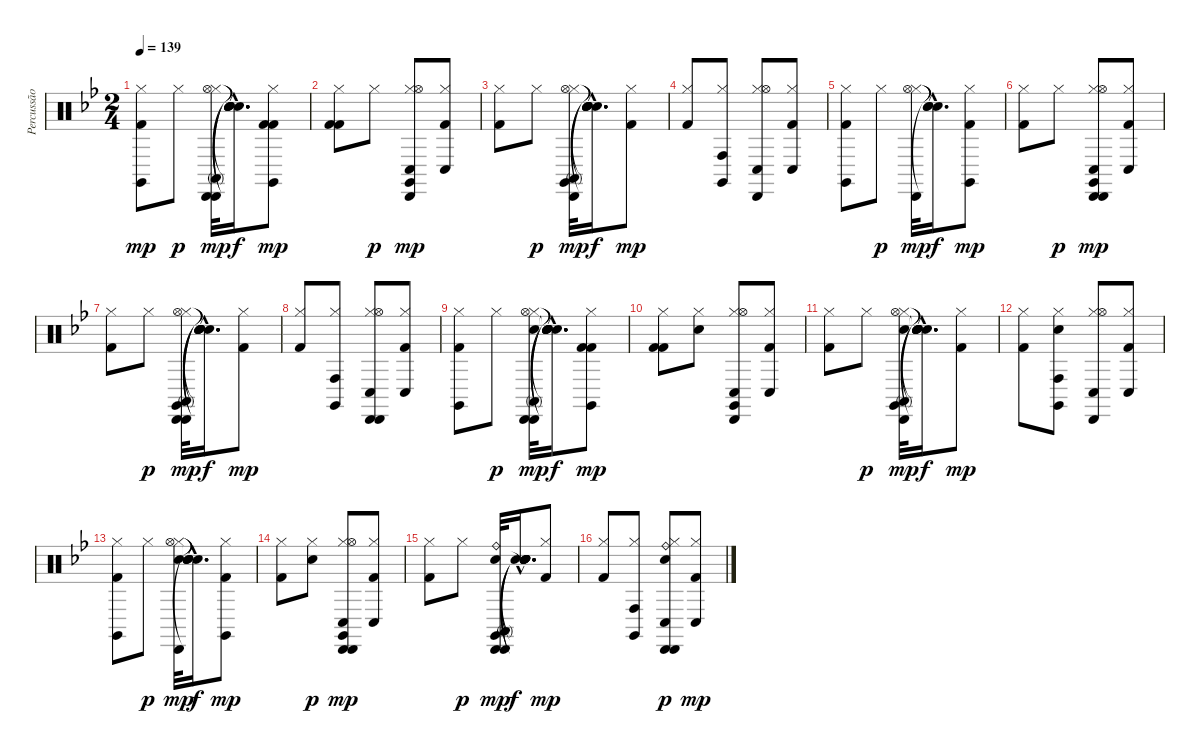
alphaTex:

\track ("Percussão" "Percussão") {instrument percussion}
\staff {score}
\articulation defaults
\ts (2 4)
\tempo 139
\clef neutral
\ks bb
("Hi-Hat (closed)" "Claves (hit)" "Kick (hit) 2").8{dy mp} "Hi-Hat (closed)".8{dy p} ("Conga high (mute)" "Cabasa (hit)" "Cabasa (hit)" "Hi-Hat (closed)" "Hi-Hat (open)").32{dy mp} ("Snare (hit)"{hac t} "Snare (hit)"{hac t} "Snare (hit)"{hac t} "Snare (hit)"{hac t} "Snare (hit)"{hac t}).16{d dy f} ("Hi-Hat (closed)" "Claves (hit)" "Kick (hit) 2" "Kick (hit) 2").8{dy mp} |
("Hi-Hat (closed)" "Kick (hit) 2" "Kick (hit) 2").8 "Hi-Hat (closed)".8{dy p} ("Cabasa (hit)" "Conga low (hit)" "Claves (hit)" "Hi-Hat (closed)" "Hi-Hat (open)").8{dy mp} ("Hi-Hat (closed)" "Conga low (hit)" "Kick (hit) 2").8 |
("Hi-Hat (closed)" "Kick (hit) 2").8 "Hi-Hat (closed)".8{dy p} ("Conga high (mute)" "Cabasa (hit)" "Claves (hit)" "Hi-Hat (closed)" "Hi-Hat (open)").32{dy mp} ("Snare (hit)"{hac t} "Snare (hit)"{hac t} "Snare (hit)"{hac t} "Snare (hit)"{hac t} "Snare (hit)"{hac t}).16{d dy f} ("Hi-Hat (closed)" "Kick (hit) 2").8{dy mp} |
("Hi-Hat (closed)" "Kick (hit) 2").8 ("Hi-Hat (closed)" "Claves (hit)" "Conga high (hit)").8 ("Cabasa (hit)" "Conga low (hit)" "Hi-Hat (closed)" "Hi-Hat (open)").8 ("Hi-Hat (closed)" "Conga low (hit)" "Kick (hit) 2").8 |
("Hi-Hat (closed)" "Claves (hit)" "Kick (hit) 2").8 "Hi-Hat (closed)".8{dy p} ("Cabasa (hit)" "Hi-Hat (closed)" "Hi-Hat (open)").32{dy mp} ("Snare (hit)"{hac t} "Snare (hit)"{hac t} "Snare (hit)"{hac t}).16{d dy f} ("Hi-Hat (closed)" "Claves (hit)" "Kick (hit) 2").8{dy mp} |
("Hi-Hat (closed)" "Kick (hit) 2").8 "Hi-Hat (closed)".8{dy p} ("Cabasa (hit)" "Cabasa (hit)" "Conga low (hit)" "Claves (hit)" "Hi-Hat (closed)" "Hi-Hat (open)").8{dy mp} ("Hi-Hat (closed)" "Conga low (hit)" "Kick (hit) 2").8 |
("Hi-Hat (closed)" "Kick (hit) 2").8 "Hi-Hat (closed)".8{dy p} ("Conga high (mute)" "Cabasa (hit)" "Cabasa (hit)" "Claves (hit)" "Hi-Hat (closed)" "Hi-Hat (open)").32{dy mp} ("Snare (hit)"{hac t} "Snare (hit)"{hac t} "Snare (hit)"{hac t} "Snare (hit)"{hac t} "Snare (hit)"{hac t} "Snare (hit)"{hac t}).16{d dy f} ("Hi-Hat (closed)" "Kick (hit) 2").8{dy mp} |
("Hi-Hat (closed)" "Kick (hit) 2").8 ("Hi-Hat (closed)" "Claves (hit)" "Conga high (hit)").8 ("Cabasa (hit)" "Cabasa (hit)" "Conga low (hit)" "Hi-Hat (closed)" "Hi-Hat (open)").8 ("Hi-Hat (closed)" "Conga low (hit)" "Kick (hit) 2").8 |
("Hi-Hat (closed)" "Claves (hit)" "Kick (hit) 2").8 "Hi-Hat (closed)".8{dy p} ("Conga high (mute)" "Cabasa (hit)" "Cabasa (hit)" "Electric Snare (hit)" "Hi-Hat (closed)" "Hi-Hat (open)").32{dy mp} ("Snare (hit)"{hac t} "Snare (hit)"{hac t} "Snare (hit)"{hac t} "Snare (hit)"{hac t} "Snare (hit)"{hac t} "Snare (hit)"{hac t}).16{d dy f} ("Hi-Hat (closed)" "Claves (hit)" "Kick (hit) 2" "Kick (hit) 2").8{dy mp} |
("Hi-Hat (closed)" "Kick (hit) 2" "Kick (hit) 2").8 ("Hi-Hat (closed)" "Electric Snare (hit)").8 ("Cabasa (hit)" "Conga low (hit)" "Claves (hit)" "Hi-Hat (closed)" "Hi-Hat (open)").8 ("Hi-Hat (closed)" "Conga low (hit)" "Kick (hit) 2").8 |
("Hi-Hat (closed)" "Kick (hit) 2").8 "Hi-Hat (closed)".8{dy p} ("Conga high (mute)" "Cabasa (hit)" "Electric Snare (hit)" "Claves (hit)" "Hi-Hat (closed)" "Hi-Hat (open)").32{dy mp} ("Snare (hit)"{hac t} "Snare (hit)"{hac t} "Snare (hit)"{hac t} "Snare (hit)"{hac t} "Snare (hit)"{hac t} "Snare (hit)"{hac t}).16{d dy f} ("Hi-Hat (closed)" "Kick (hit) 2").8{dy mp} |
("Hi-Hat (closed)" "Kick (hit) 2").8 ("Hi-Hat (closed)" "Claves (hit)" "Electric Snare (hit)" "Conga high (hit)").8 ("Cabasa (hit)" "Conga low (hit)" "Hi-Hat (closed)" "Hi-Hat (open)").8 ("Hi-Hat (closed)" "Conga low (hit)" "Kick (hit) 2").8 |
("Hi-Hat (closed)" "Claves (hit)" "Kick (hit) 2").8 "Hi-Hat (closed)".8{dy p} ("Cabasa (hit)" "Electric Snare (hit)" "Hi-Hat (closed)" "Hi-Hat (open)").32{dy mp} ("Snare (hit)"{hac t} "Snare (hit)"{hac t} "Snare (hit)"{hac t} "Snare (hit)"{hac t}).16{d dy f} ("Hi-Hat (closed)" "Claves (hit)" "Kick (hit) 2").8{dy mp} |
("Hi-Hat (closed)" "Kick (hit) 2").8 ("Hi-Hat (closed)" "Electric Snare (hit)").8{dy p} ("Cabasa (hit)" "Cabasa (hit)" "Conga low (hit)" "Claves (hit)" "Hi-Hat (closed)" "Hi-Hat (open)").8{dy mp} ("Hi-Hat (closed)" "Conga low (hit)" "Kick (hit) 2").8 |
("Hi-Hat (closed)" "Kick (hit) 2").8 "Hi-Hat (closed)".8{dy p} ("Conga high (mute)" "Cabasa (hit)" "Cabasa (hit)" "Ride (bell)" "Electric Snare (hit)" "Claves (hit)").32{dy mp} ("Snare (hit)"{hac t} "Snare (hit)"{hac t} "Snare (hit)"{hac t} "Snare (hit)"{hac t} "Snare (hit)"{hac t} "Snare (hit)"{hac t}).16{d dy f} ("Hi-Hat (closed)" "Kick (hit) 2").8{dy mp} |
("Hi-Hat (closed)" "Kick (hit) 2").8 ("Hi-Hat (closed)" "Claves (hit)" "Conga high (hit)").8 ("Cabasa (hit)" "Cabasa (hit)" "Ride (bell)" "Electric Snare (hit)" "Conga low (hit)" "Hi-Hat (closed)").8{dy p} ("Hi-Hat (closed)" "Conga low (hit)" "Kick (hit) 2").8{dy mp}
